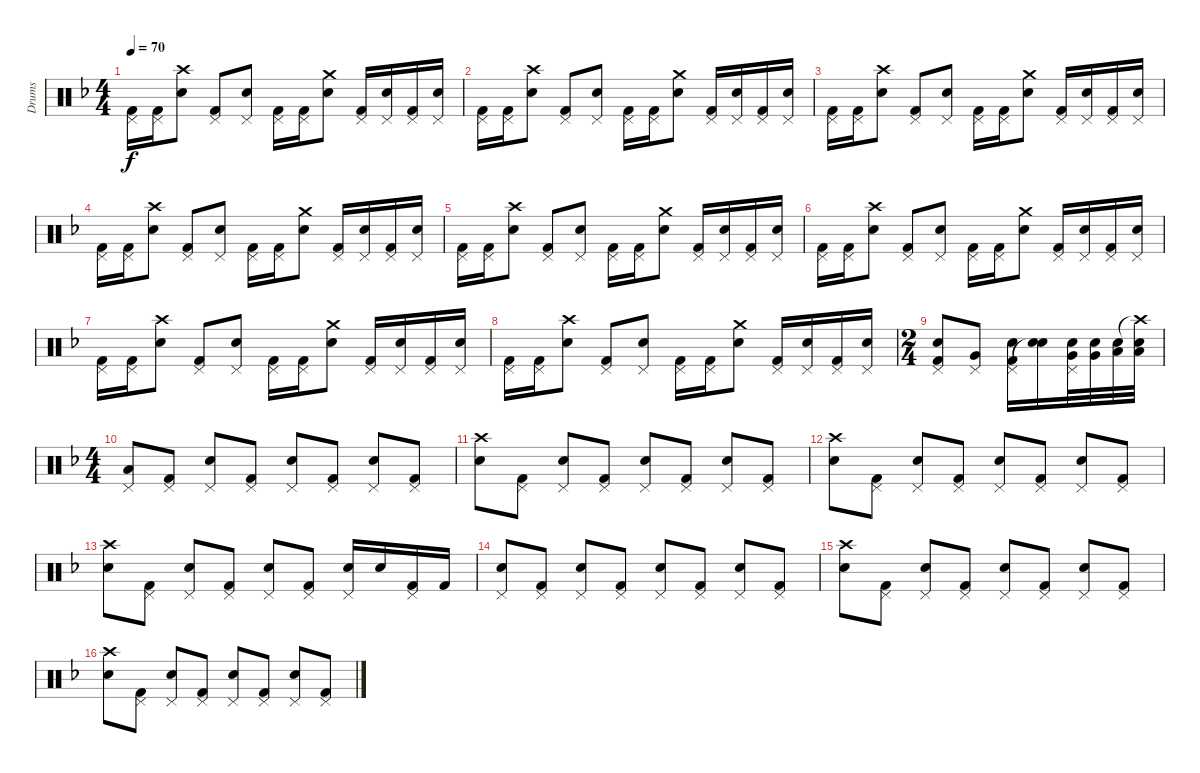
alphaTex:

\track ("Drums" "Drums") {instrument percussion}
\staff {score}
\articulation defaults
\ts (4 4)
\tempo 70
\clef neutral
\ks dminor
("Pedal Hi-Hat (hit)" "Kick (hit) 2").16{dy f} ("Pedal Hi-Hat (hit)" "Kick (hit) 2").16 ("Crash high (hit)" "Snare (hit) 2").8 ("Pedal Hi-Hat (hit)" "Kick (hit) 2").8 ("Pedal Hi-Hat (hit)" "Snare (hit) 2").8 ("Pedal Hi-Hat (hit)" "Kick (hit) 2").16 ("Pedal Hi-Hat (hit)" "Kick (hit) 2").16 ("Crash medium (hit)" "Snare (hit) 2").8 ("Pedal Hi-Hat (hit)" "Kick (hit) 2").16 ("Pedal Hi-Hat (hit)" "Snare (hit) 2").16 ("Pedal Hi-Hat (hit)" "Kick (hit) 2").16 ("Pedal Hi-Hat (hit)" "Snare (hit) 2").16 |
("Pedal Hi-Hat (hit)" "Kick (hit) 2").16 ("Pedal Hi-Hat (hit)" "Kick (hit) 2").16 ("Crash high (hit)" "Snare (hit) 2").8 ("Pedal Hi-Hat (hit)" "Kick (hit) 2").8 ("Pedal Hi-Hat (hit)" "Snare (hit) 2").8 ("Pedal Hi-Hat (hit)" "Kick (hit) 2").16 ("Pedal Hi-Hat (hit)" "Kick (hit) 2").16 ("Crash medium (hit)" "Snare (hit) 2").8 ("Pedal Hi-Hat (hit)" "Kick (hit) 2").16 ("Pedal Hi-Hat (hit)" "Snare (hit) 2").16 ("Pedal Hi-Hat (hit)" "Kick (hit) 2").16 ("Pedal Hi-Hat (hit)" "Snare (hit) 2").16 |
("Pedal Hi-Hat (hit)" "Kick (hit) 2").16 ("Pedal Hi-Hat (hit)" "Kick (hit) 2").16 ("Crash high (hit)" "Snare (hit) 2").8 ("Pedal Hi-Hat (hit)" "Kick (hit) 2").8 ("Pedal Hi-Hat (hit)" "Snare (hit) 2").8 ("Pedal Hi-Hat (hit)" "Kick (hit) 2").16 ("Pedal Hi-Hat (hit)" "Kick (hit) 2").16 ("Crash medium (hit)" "Snare (hit) 2").8 ("Pedal Hi-Hat (hit)" "Kick (hit) 2").16 ("Pedal Hi-Hat (hit)" "Snare (hit) 2").16 ("Pedal Hi-Hat (hit)" "Kick (hit) 2").16 ("Pedal Hi-Hat (hit)" "Snare (hit) 2").16 |
("Pedal Hi-Hat (hit)" "Kick (hit) 2").16 ("Pedal Hi-Hat (hit)" "Kick (hit) 2").16 ("Crash high (hit)" "Snare (hit) 2").8 ("Pedal Hi-Hat (hit)" "Kick (hit) 2").8 ("Pedal Hi-Hat (hit)" "Snare (hit) 2").8 ("Pedal Hi-Hat (hit)" "Kick (hit) 2").16 ("Pedal Hi-Hat (hit)" "Kick (hit) 2").16 ("Crash medium (hit)" "Snare (hit) 2").8 ("Pedal Hi-Hat (hit)" "Kick (hit) 2").16 ("Pedal Hi-Hat (hit)" "Snare (hit) 2").16 ("Pedal Hi-Hat (hit)" "Kick (hit) 2").16 ("Pedal Hi-Hat (hit)" "Snare (hit) 2").16 |
("Pedal Hi-Hat (hit)" "Kick (hit) 2").16 ("Pedal Hi-Hat (hit)" "Kick (hit) 2").16 ("Crash high (hit)" "Snare (hit) 2").8 ("Pedal Hi-Hat (hit)" "Kick (hit) 2").8 ("Pedal Hi-Hat (hit)" "Snare (hit) 2").8 ("Pedal Hi-Hat (hit)" "Kick (hit) 2").16 ("Pedal Hi-Hat (hit)" "Kick (hit) 2").16 ("Crash medium (hit)" "Snare (hit) 2").8 ("Pedal Hi-Hat (hit)" "Kick (hit) 2").16 ("Pedal Hi-Hat (hit)" "Snare (hit) 2").16 ("Pedal Hi-Hat (hit)" "Kick (hit) 2").16 ("Pedal Hi-Hat (hit)" "Snare (hit) 2").16 |
("Pedal Hi-Hat (hit)" "Kick (hit) 2").16 ("Pedal Hi-Hat (hit)" "Kick (hit) 2").16 ("Crash high (hit)" "Snare (hit) 2").8 ("Pedal Hi-Hat (hit)" "Kick (hit) 2").8 ("Pedal Hi-Hat (hit)" "Snare (hit) 2").8 ("Pedal Hi-Hat (hit)" "Kick (hit) 2").16 ("Pedal Hi-Hat (hit)" "Kick (hit) 2").16 ("Crash medium (hit)" "Snare (hit) 2").8 ("Pedal Hi-Hat (hit)" "Kick (hit) 2").16 ("Pedal Hi-Hat (hit)" "Snare (hit) 2").16 ("Pedal Hi-Hat (hit)" "Kick (hit) 2").16 ("Pedal Hi-Hat (hit)" "Snare (hit) 2").16 |
("Pedal Hi-Hat (hit)" "Kick (hit) 2").16 ("Pedal Hi-Hat (hit)" "Kick (hit) 2").16 ("Crash high (hit)" "Snare (hit) 2").8 ("Pedal Hi-Hat (hit)" "Kick (hit) 2").8 ("Pedal Hi-Hat (hit)" "Snare (hit) 2").8 ("Pedal Hi-Hat (hit)" "Kick (hit) 2").16 ("Pedal Hi-Hat (hit)" "Kick (hit) 2").16 ("Crash medium (hit)" "Snare (hit) 2").8 ("Pedal Hi-Hat (hit)" "Kick (hit) 2").16 ("Pedal Hi-Hat (hit)" "Snare (hit) 2").16 ("Pedal Hi-Hat (hit)" "Kick (hit) 2").16 ("Pedal Hi-Hat (hit)" "Snare (hit) 2").16 |
("Pedal Hi-Hat (hit)" "Kick (hit) 2").16 ("Pedal Hi-Hat (hit)" "Kick (hit) 2").16 ("Crash high (hit)" "Snare (hit) 2").8 ("Pedal Hi-Hat (hit)" "Kick (hit) 2").8 ("Pedal Hi-Hat (hit)" "Snare (hit) 2").8 ("Pedal Hi-Hat (hit)" "Kick (hit) 2").16 ("Pedal Hi-Hat (hit)" "Kick (hit) 2").16 ("Crash medium (hit)" "Snare (hit) 2").8 ("Pedal Hi-Hat (hit)" "Kick (hit) 2").16 ("Pedal Hi-Hat (hit)" "Snare (hit) 2").16 ("Pedal Hi-Hat (hit)" "Kick (hit) 2").16 ("Pedal Hi-Hat (hit)" "Snare (hit) 2").16 |
\ts (2 4)
("Pedal Hi-Hat (hit)" "Snare (hit) 2" "Kick (hit) 2").8 ("Pedal Hi-Hat (hit)" "Very Low Tom (hit)").8 ("Pedal Hi-Hat (hit)" "Snare (hit) 2" "Kick (hit) 2").16 ("Snare (hit)"{t} "Snare (hit) 2").16 ("Pedal Hi-Hat (hit)" "Snare (hit) 2" "Very Low Tom (hit)").32 ("Snare (hit) 2" "Very Low Tom (hit)").32 ("Snare (hit) 2" "Low Floor Tom (hit)").32 ("Crash high (hit)"{t} "Snare (hit) 2" "Low Floor Tom (hit)").32 |
\ts (4 4)
("Pedal Hi-Hat (hit)" "Low Floor Tom (hit)").8 ("Pedal Hi-Hat (hit)" "Kick (hit) 2").8 ("Pedal Hi-Hat (hit)" "Snare (hit) 2").8 ("Pedal Hi-Hat (hit)" "Kick (hit) 2").8 ("Pedal Hi-Hat (hit)" "Snare (hit) 2").8 ("Pedal Hi-Hat (hit)" "Kick (hit) 2").8 ("Pedal Hi-Hat (hit)" "Snare (hit) 2").8 ("Pedal Hi-Hat (hit)" "Kick (hit) 2").8 |
("Crash high (hit)" "Snare (hit) 2").8 ("Pedal Hi-Hat (hit)" "Kick (hit) 2").8 ("Pedal Hi-Hat (hit)" "Snare (hit) 2").8 ("Pedal Hi-Hat (hit)" "Kick (hit) 2").8 ("Pedal Hi-Hat (hit)" "Snare (hit) 2").8 ("Pedal Hi-Hat (hit)" "Kick (hit) 2").8 ("Pedal Hi-Hat (hit)" "Snare (hit) 2").8 ("Pedal Hi-Hat (hit)" "Kick (hit) 2").8 |
("Crash high (hit)" "Snare (hit) 2").8 ("Pedal Hi-Hat (hit)" "Kick (hit) 2").8 ("Pedal Hi-Hat (hit)" "Snare (hit) 2").8 ("Pedal Hi-Hat (hit)" "Kick (hit) 2").8 ("Pedal Hi-Hat (hit)" "Snare (hit) 2").8 ("Pedal Hi-Hat (hit)" "Kick (hit) 2").8 ("Pedal Hi-Hat (hit)" "Snare (hit) 2").8 ("Pedal Hi-Hat (hit)" "Kick (hit) 2").8 |
("Crash high (hit)" "Snare (hit) 2").8 ("Pedal Hi-Hat (hit)" "Kick (hit) 2").8 ("Pedal Hi-Hat (hit)" "Snare (hit) 2").8 ("Pedal Hi-Hat (hit)" "Kick (hit) 2").8 ("Pedal Hi-Hat (hit)" "Snare (hit) 2").8 ("Pedal Hi-Hat (hit)" "Kick (hit) 2").8 ("Pedal Hi-Hat (hit)" "Snare (hit) 2").16 "Snare (hit) 2".16 ("Pedal Hi-Hat (hit)" "Kick (hit) 2").16 "Kick (hit) 2".16 |
("Pedal Hi-Hat (hit)" "Snare (hit) 2").8 ("Pedal Hi-Hat (hit)" "Kick (hit) 2").8 ("Pedal Hi-Hat (hit)" "Snare (hit) 2").8 ("Pedal Hi-Hat (hit)" "Kick (hit) 2").8 ("Pedal Hi-Hat (hit)" "Snare (hit) 2").8 ("Pedal Hi-Hat (hit)" "Kick (hit) 2").8 ("Pedal Hi-Hat (hit)" "Snare (hit) 2").8 ("Pedal Hi-Hat (hit)" "Kick (hit) 2").8 |
("Crash high (hit)" "Snare (hit) 2").8 ("Pedal Hi-Hat (hit)" "Kick (hit) 2").8 ("Pedal Hi-Hat (hit)" "Snare (hit) 2").8 ("Pedal Hi-Hat (hit)" "Kick (hit) 2").8 ("Pedal Hi-Hat (hit)" "Snare (hit) 2").8 ("Pedal Hi-Hat (hit)" "Kick (hit) 2").8 ("Pedal Hi-Hat (hit)" "Snare (hit) 2").8 ("Pedal Hi-Hat (hit)" "Kick (hit) 2").8 |
("Crash high (hit)" "Snare (hit) 2").8 ("Pedal Hi-Hat (hit)" "Kick (hit) 2").8 ("Pedal Hi-Hat (hit)" "Snare (hit) 2").8 ("Pedal Hi-Hat (hit)" "Kick (hit) 2").8 ("Pedal Hi-Hat (hit)" "Snare (hit) 2").8 ("Pedal Hi-Hat (hit)" "Kick (hit) 2").8 ("Pedal Hi-Hat (hit)" "Snare (hit) 2").8 ("Pedal Hi-Hat (hit)" "Kick (hit) 2").8
